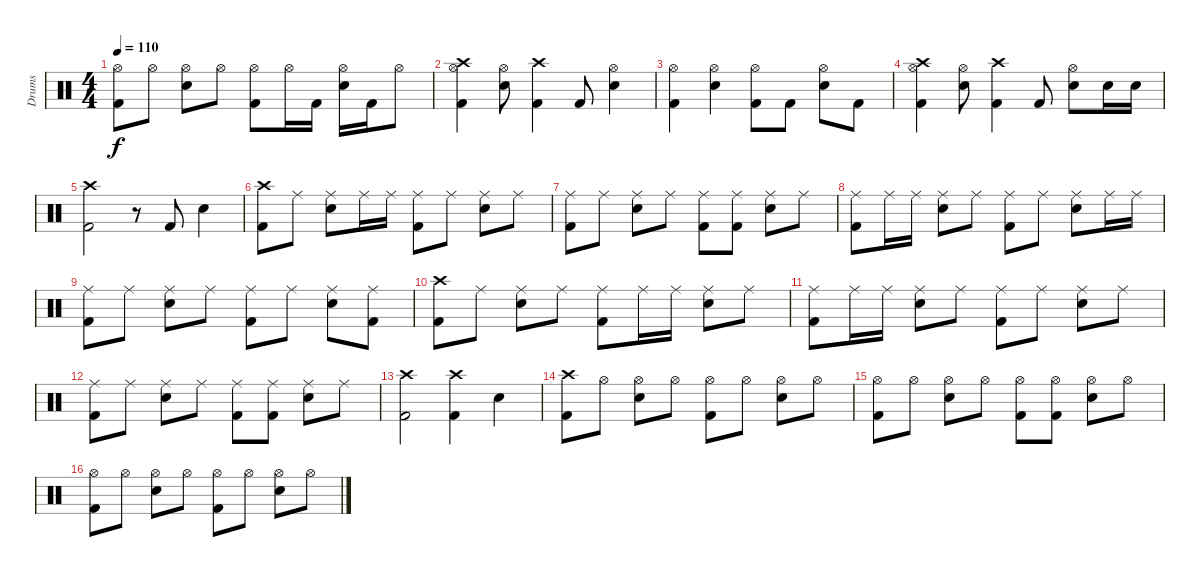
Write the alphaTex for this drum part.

\track ("Drums" "Drums") {instrument percussion}
\staff {score}
\articulation defaults
\ts (4 4)
\tempo 110
\clef neutral
\ks c
("Hi-Hat (open)" "Kick (hit) 2").8{dy f} "Hi-Hat (open)".8 ("Hi-Hat (open)" "Electric Snare (hit)").8 "Hi-Hat (open)".8 ("Hi-Hat (open)" "Kick (hit) 2").8 "Hi-Hat (open)".16 "Kick (hit) 2".16 ("Hi-Hat (open)" "Electric Snare (hit)").16 "Kick (hit) 2".16 "Hi-Hat (open)".8 |
("Crash high (hit)" "Hi-Hat (open)" "Kick (hit) 2").4 ("Hi-Hat (open)" "Electric Snare (hit)").8 ("Crash high (hit)" "Kick (hit) 2").4 "Kick (hit) 2".8 ("Hi-Hat (open)" "Electric Snare (hit)").4 |
("Hi-Hat (open)" "Kick (hit) 2").4 ("Hi-Hat (open)" "Electric Snare (hit)").4 ("Hi-Hat (open)" "Kick (hit) 2").8 "Kick (hit) 2".8 ("Hi-Hat (open)" "Electric Snare (hit)").8 "Kick (hit) 2".8 |
("Crash high (hit)" "Hi-Hat (open)" "Kick (hit) 2").4 ("Hi-Hat (open)" "Electric Snare (hit)").8 ("Crash high (hit)" "Kick (hit) 2").4 "Kick (hit) 2".8 ("Hi-Hat (open)" "Electric Snare (hit)").8 "Electric Snare (hit)".16 "Electric Snare (hit)".16 |
("Crash high (hit)" "Kick (hit) 2").2 r.8 "Kick (hit) 2".8 "Electric Snare (hit)".4 |
("Crash high (hit)" "Kick (hit) 2").8 "Ride (middle)".8 ("Ride (middle)" "Electric Snare (hit)").8 "Ride (middle)".16 "Ride (middle)".16 ("Ride (middle)" "Kick (hit) 2").8 "Ride (middle)".8 ("Ride (middle)" "Electric Snare (hit)").8 "Ride (middle)".8 |
("Ride (middle)" "Kick (hit) 2").8 "Ride (middle)".8 ("Ride (middle)" "Electric Snare (hit)").8 "Ride (middle)".8 ("Ride (middle)" "Kick (hit) 2").8 ("Ride (middle)" "Kick (hit) 2").8 ("Ride (middle)" "Electric Snare (hit)").8 "Ride (middle)".8 |
("Ride (middle)" "Kick (hit) 2").8 "Ride (middle)".16 "Ride (middle)".16 ("Ride (middle)" "Electric Snare (hit)").8 "Ride (middle)".8 ("Ride (middle)" "Kick (hit) 2").8 "Ride (middle)".8 ("Ride (middle)" "Electric Snare (hit)").8 "Ride (middle)".16 "Ride (middle)".16 |
("Ride (middle)" "Kick (hit) 2").8 "Ride (middle)".8 ("Ride (middle)" "Electric Snare (hit)").8 "Ride (middle)".8 ("Ride (middle)" "Kick (hit) 2").8 "Ride (middle)".8 ("Ride (middle)" "Electric Snare (hit)").8 ("Ride (middle)" "Kick (hit) 2").8 |
("Crash high (hit)" "Kick (hit) 2").8 "Ride (middle)".8 ("Ride (middle)" "Electric Snare (hit)").8 "Ride (middle)".8 ("Ride (middle)" "Kick (hit) 2").8 "Ride (middle)".16 "Ride (middle)".16 ("Ride (middle)" "Electric Snare (hit)").8 "Ride (middle)".8 |
("Ride (middle)" "Kick (hit) 2").8 "Ride (middle)".16 "Ride (middle)".16 ("Ride (middle)" "Electric Snare (hit)").8 "Ride (middle)".8 ("Ride (middle)" "Kick (hit) 2").8 "Ride (middle)".8 ("Ride (middle)" "Electric Snare (hit)").8 "Ride (middle)".8 |
("Ride (middle)" "Kick (hit) 2").8 "Ride (middle)".8 ("Ride (middle)" "Electric Snare (hit)").8 "Ride (middle)".8 ("Ride (middle)" "Kick (hit) 2").8 ("Ride (middle)" "Kick (hit) 2").8 ("Ride (middle)" "Electric Snare (hit)").8 "Ride (middle)".8 |
("Crash high (hit)" "Kick (hit) 2").2 ("Crash high (hit)" "Kick (hit) 2").4 "Electric Snare (hit)".4 |
("Crash high (hit)" "Kick (hit) 2").8 "Hi-Hat (open)".8 ("Hi-Hat (open)" "Electric Snare (hit)").8 "Hi-Hat (open)".8 ("Hi-Hat (open)" "Kick (hit) 2").8 "Hi-Hat (open)".8 ("Hi-Hat (open)" "Electric Snare (hit)").8 "Hi-Hat (open)".8 |
("Hi-Hat (open)" "Kick (hit) 2").8 "Hi-Hat (open)".8 ("Hi-Hat (open)" "Electric Snare (hit)").8 "Hi-Hat (open)".8 ("Hi-Hat (open)" "Kick (hit) 2").8 ("Hi-Hat (open)" "Kick (hit) 2").8 ("Hi-Hat (open)" "Electric Snare (hit)").8 "Hi-Hat (open)".8 |
("Hi-Hat (open)" "Kick (hit) 2").8 "Hi-Hat (open)".8 ("Hi-Hat (open)" "Electric Snare (hit)").8 "Hi-Hat (open)".8 ("Hi-Hat (open)" "Kick (hit) 2").8 "Hi-Hat (open)".8 ("Hi-Hat (open)" "Electric Snare (hit)").8 "Hi-Hat (open)".8
